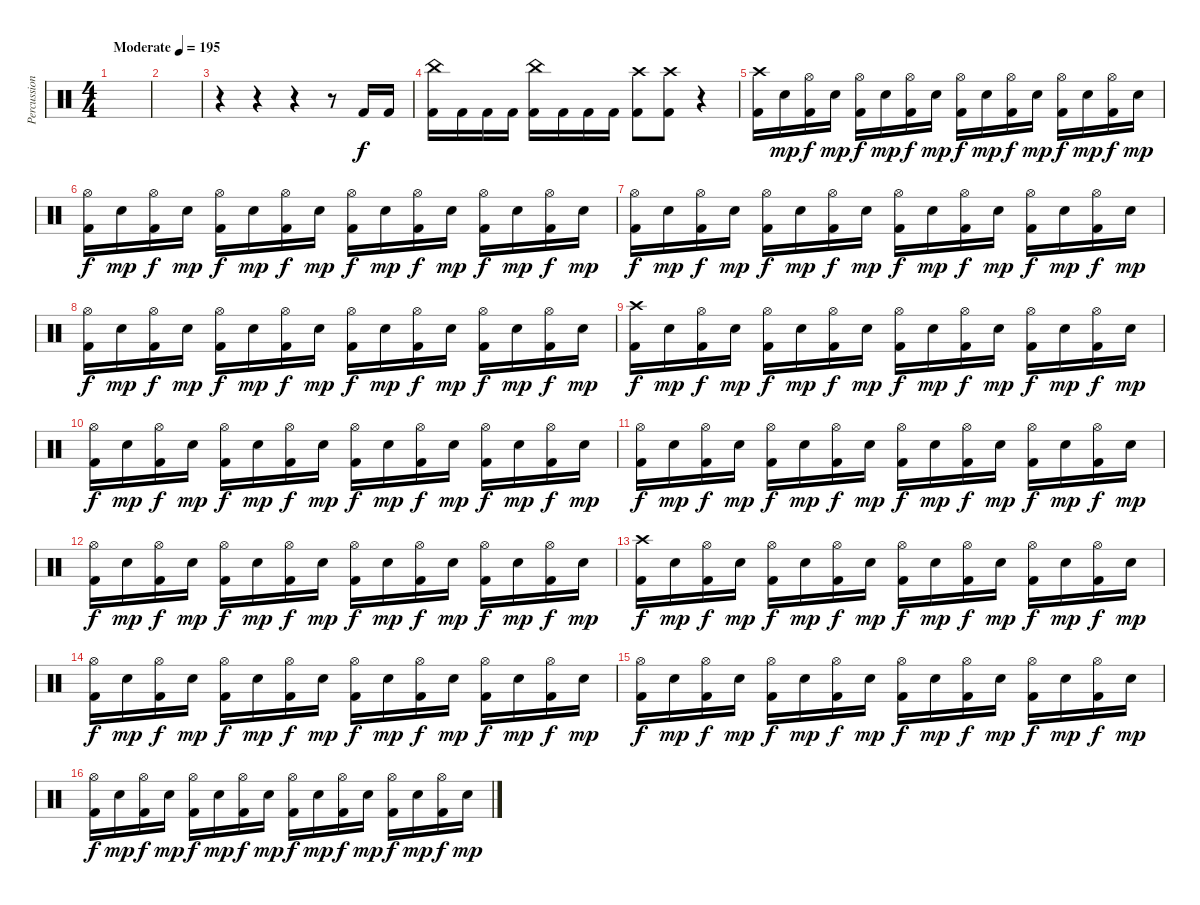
\track ("Percussion" "Percussion") {instrument percussion}
\staff {score}
\articulation defaults
\ts (4 4)
\tempo (195 "Moderate")
\clef neutral
\ks c
|
|
r.4 r.4 r.4 r.8 "Kick (hit) 2".16 "Kick (hit) 2".16 |
("China (hit)" "Kick (hit) 2").16 "Kick (hit) 2".16 "Kick (hit) 2".16 "Kick (hit) 2".16 ("China (hit)" "Kick (hit) 2").16 "Kick (hit) 2".16 "Kick (hit) 2".16 "Kick (hit) 2".16 ("Crash high (hit)" "Kick (hit) 2").8 ("Crash high (hit)" "Kick (hit) 2").8 r.4 |
("Crash high (hit)" "Kick (hit) 2").16 "Snare (hit) 2".16{dy mp} ("Hi-Hat (open)" "Kick (hit) 2").16{dy f} "Snare (hit) 2".16{dy mp} ("Hi-Hat (open)" "Kick (hit) 2").16{dy f} "Snare (hit) 2".16{dy mp} ("Hi-Hat (open)" "Kick (hit) 2").16{dy f} "Snare (hit) 2".16{dy mp} ("Hi-Hat (open)" "Kick (hit) 2").16{dy f} "Snare (hit) 2".16{dy mp} ("Hi-Hat (open)" "Kick (hit) 2").16{dy f} "Snare (hit) 2".16{dy mp} ("Hi-Hat (open)" "Kick (hit) 2").16{dy f} "Snare (hit) 2".16{dy mp} ("Hi-Hat (open)" "Kick (hit) 2").16{dy f} "Snare (hit) 2".16{dy mp} |
("Hi-Hat (open)" "Kick (hit) 2").16{dy f} "Snare (hit) 2".16{dy mp} ("Hi-Hat (open)" "Kick (hit) 2").16{dy f} "Snare (hit) 2".16{dy mp} ("Hi-Hat (open)" "Kick (hit) 2").16{dy f} "Snare (hit) 2".16{dy mp} ("Hi-Hat (open)" "Kick (hit) 2").16{dy f} "Snare (hit) 2".16{dy mp} ("Hi-Hat (open)" "Kick (hit) 2").16{dy f} "Snare (hit) 2".16{dy mp} ("Hi-Hat (open)" "Kick (hit) 2").16{dy f} "Snare (hit) 2".16{dy mp} ("Hi-Hat (open)" "Kick (hit) 2").16{dy f} "Snare (hit) 2".16{dy mp} ("Hi-Hat (open)" "Kick (hit) 2").16{dy f} "Snare (hit) 2".16{dy mp} |
("Hi-Hat (open)" "Kick (hit) 2").16{dy f} "Snare (hit) 2".16{dy mp} ("Hi-Hat (open)" "Kick (hit) 2").16{dy f} "Snare (hit) 2".16{dy mp} ("Hi-Hat (open)" "Kick (hit) 2").16{dy f} "Snare (hit) 2".16{dy mp} ("Hi-Hat (open)" "Kick (hit) 2").16{dy f} "Snare (hit) 2".16{dy mp} ("Hi-Hat (open)" "Kick (hit) 2").16{dy f} "Snare (hit) 2".16{dy mp} ("Hi-Hat (open)" "Kick (hit) 2").16{dy f} "Snare (hit) 2".16{dy mp} ("Hi-Hat (open)" "Kick (hit) 2").16{dy f} "Snare (hit) 2".16{dy mp} ("Hi-Hat (open)" "Kick (hit) 2").16{dy f} "Snare (hit) 2".16{dy mp} |
("Hi-Hat (open)" "Kick (hit) 2").16{dy f} "Snare (hit) 2".16{dy mp} ("Hi-Hat (open)" "Kick (hit) 2").16{dy f} "Snare (hit) 2".16{dy mp} ("Hi-Hat (open)" "Kick (hit) 2").16{dy f} "Snare (hit) 2".16{dy mp} ("Hi-Hat (open)" "Kick (hit) 2").16{dy f} "Snare (hit) 2".16{dy mp} ("Hi-Hat (open)" "Kick (hit) 2").16{dy f} "Snare (hit) 2".16{dy mp} ("Hi-Hat (open)" "Kick (hit) 2").16{dy f} "Snare (hit) 2".16{dy mp} ("Hi-Hat (open)" "Kick (hit) 2").16{dy f} "Snare (hit) 2".16{dy mp} ("Hi-Hat (open)" "Kick (hit) 2").16{dy f} "Snare (hit) 2".16{dy mp} |
("Crash high (hit)" "Kick (hit) 2").16{dy f} "Snare (hit) 2".16{dy mp} ("Hi-Hat (open)" "Kick (hit) 2").16{dy f} "Snare (hit) 2".16{dy mp} ("Hi-Hat (open)" "Kick (hit) 2").16{dy f} "Snare (hit) 2".16{dy mp} ("Hi-Hat (open)" "Kick (hit) 2").16{dy f} "Snare (hit) 2".16{dy mp} ("Hi-Hat (open)" "Kick (hit) 2").16{dy f} "Snare (hit) 2".16{dy mp} ("Hi-Hat (open)" "Kick (hit) 2").16{dy f} "Snare (hit) 2".16{dy mp} ("Hi-Hat (open)" "Kick (hit) 2").16{dy f} "Snare (hit) 2".16{dy mp} ("Hi-Hat (open)" "Kick (hit) 2").16{dy f} "Snare (hit) 2".16{dy mp} |
("Hi-Hat (open)" "Kick (hit) 2").16{dy f} "Snare (hit) 2".16{dy mp} ("Hi-Hat (open)" "Kick (hit) 2").16{dy f} "Snare (hit) 2".16{dy mp} ("Hi-Hat (open)" "Kick (hit) 2").16{dy f} "Snare (hit) 2".16{dy mp} ("Hi-Hat (open)" "Kick (hit) 2").16{dy f} "Snare (hit) 2".16{dy mp} ("Hi-Hat (open)" "Kick (hit) 2").16{dy f} "Snare (hit) 2".16{dy mp} ("Hi-Hat (open)" "Kick (hit) 2").16{dy f} "Snare (hit) 2".16{dy mp} ("Hi-Hat (open)" "Kick (hit) 2").16{dy f} "Snare (hit) 2".16{dy mp} ("Hi-Hat (open)" "Kick (hit) 2").16{dy f} "Snare (hit) 2".16{dy mp} |
("Hi-Hat (open)" "Kick (hit) 2").16{dy f} "Snare (hit) 2".16{dy mp} ("Hi-Hat (open)" "Kick (hit) 2").16{dy f} "Snare (hit) 2".16{dy mp} ("Hi-Hat (open)" "Kick (hit) 2").16{dy f} "Snare (hit) 2".16{dy mp} ("Hi-Hat (open)" "Kick (hit) 2").16{dy f} "Snare (hit) 2".16{dy mp} ("Hi-Hat (open)" "Kick (hit) 2").16{dy f} "Snare (hit) 2".16{dy mp} ("Hi-Hat (open)" "Kick (hit) 2").16{dy f} "Snare (hit) 2".16{dy mp} ("Hi-Hat (open)" "Kick (hit) 2").16{dy f} "Snare (hit) 2".16{dy mp} ("Hi-Hat (open)" "Kick (hit) 2").16{dy f} "Snare (hit) 2".16{dy mp} |
("Hi-Hat (open)" "Kick (hit) 2").16{dy f} "Snare (hit) 2".16{dy mp} ("Hi-Hat (open)" "Kick (hit) 2").16{dy f} "Snare (hit) 2".16{dy mp} ("Hi-Hat (open)" "Kick (hit) 2").16{dy f} "Snare (hit) 2".16{dy mp} ("Hi-Hat (open)" "Kick (hit) 2").16{dy f} "Snare (hit) 2".16{dy mp} ("Hi-Hat (open)" "Kick (hit) 2").16{dy f} "Snare (hit) 2".16{dy mp} ("Hi-Hat (open)" "Kick (hit) 2").16{dy f} "Snare (hit) 2".16{dy mp} ("Hi-Hat (open)" "Kick (hit) 2").16{dy f} "Snare (hit) 2".16{dy mp} ("Hi-Hat (open)" "Kick (hit) 2").16{dy f} "Snare (hit) 2".16{dy mp} |
("Crash high (hit)" "Kick (hit) 2").16{dy f} "Snare (hit) 2".16{dy mp} ("Hi-Hat (open)" "Kick (hit) 2").16{dy f} "Snare (hit) 2".16{dy mp} ("Hi-Hat (open)" "Kick (hit) 2").16{dy f} "Snare (hit) 2".16{dy mp} ("Hi-Hat (open)" "Kick (hit) 2").16{dy f} "Snare (hit) 2".16{dy mp} ("Hi-Hat (open)" "Kick (hit) 2").16{dy f} "Snare (hit) 2".16{dy mp} ("Hi-Hat (open)" "Kick (hit) 2").16{dy f} "Snare (hit) 2".16{dy mp} ("Hi-Hat (open)" "Kick (hit) 2").16{dy f} "Snare (hit) 2".16{dy mp} ("Hi-Hat (open)" "Kick (hit) 2").16{dy f} "Snare (hit) 2".16{dy mp} |
("Hi-Hat (open)" "Kick (hit) 2").16{dy f} "Snare (hit) 2".16{dy mp} ("Hi-Hat (open)" "Kick (hit) 2").16{dy f} "Snare (hit) 2".16{dy mp} ("Hi-Hat (open)" "Kick (hit) 2").16{dy f} "Snare (hit) 2".16{dy mp} ("Hi-Hat (open)" "Kick (hit) 2").16{dy f} "Snare (hit) 2".16{dy mp} ("Hi-Hat (open)" "Kick (hit) 2").16{dy f} "Snare (hit) 2".16{dy mp} ("Hi-Hat (open)" "Kick (hit) 2").16{dy f} "Snare (hit) 2".16{dy mp} ("Hi-Hat (open)" "Kick (hit) 2").16{dy f} "Snare (hit) 2".16{dy mp} ("Hi-Hat (open)" "Kick (hit) 2").16{dy f} "Snare (hit) 2".16{dy mp} |
("Hi-Hat (open)" "Kick (hit) 2").16{dy f} "Snare (hit) 2".16{dy mp} ("Hi-Hat (open)" "Kick (hit) 2").16{dy f} "Snare (hit) 2".16{dy mp} ("Hi-Hat (open)" "Kick (hit) 2").16{dy f} "Snare (hit) 2".16{dy mp} ("Hi-Hat (open)" "Kick (hit) 2").16{dy f} "Snare (hit) 2".16{dy mp} ("Hi-Hat (open)" "Kick (hit) 2").16{dy f} "Snare (hit) 2".16{dy mp} ("Hi-Hat (open)" "Kick (hit) 2").16{dy f} "Snare (hit) 2".16{dy mp} ("Hi-Hat (open)" "Kick (hit) 2").16{dy f} "Snare (hit) 2".16{dy mp} ("Hi-Hat (open)" "Kick (hit) 2").16{dy f} "Snare (hit) 2".16{dy mp} |
("Hi-Hat (open)" "Kick (hit) 2").16{dy f} "Snare (hit) 2".16{dy mp} ("Hi-Hat (open)" "Kick (hit) 2").16{dy f} "Snare (hit) 2".16{dy mp} ("Hi-Hat (open)" "Kick (hit) 2").16{dy f} "Snare (hit) 2".16{dy mp} ("Hi-Hat (open)" "Kick (hit) 2").16{dy f} "Snare (hit) 2".16{dy mp} ("Hi-Hat (open)" "Kick (hit) 2").16{dy f} "Snare (hit) 2".16{dy mp} ("Hi-Hat (open)" "Kick (hit) 2").16{dy f} "Snare (hit) 2".16{dy mp} ("Hi-Hat (open)" "Kick (hit) 2").16{dy f} "Snare (hit) 2".16{dy mp} ("Hi-Hat (open)" "Kick (hit) 2").16{dy f} "Snare (hit) 2".16{dy mp}
